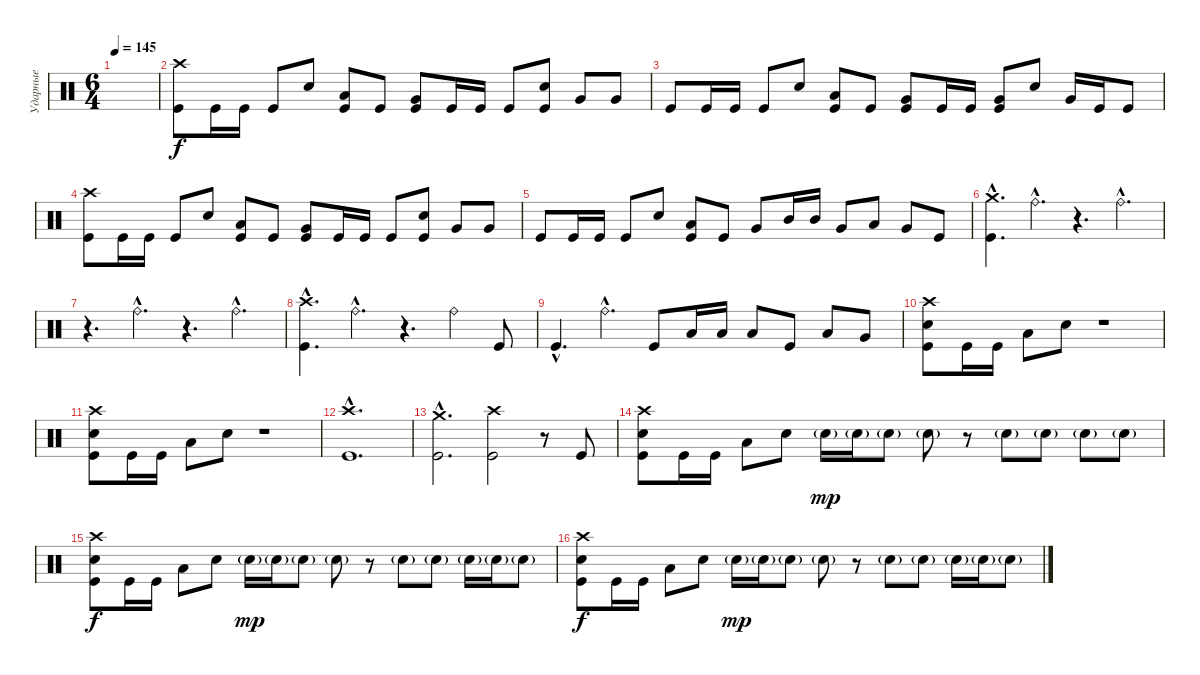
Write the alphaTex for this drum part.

\track ("Ударные" "Ударные") {instrument percussion}
\staff {score}
\articulation defaults
\ts (6 4)
\tempo 145
\clef neutral
\ks c
|
("Crash high (hit)" "Kick (hit)").8 "Kick (hit)".16 "Kick (hit)".16 "Kick (hit)".8 "Electric Snare (hit)".8 ("Low Tom (hit)" "Kick (hit)").8 "Kick (hit)".8 ("Very Low Tom (hit)" "Kick (hit)").8 "Kick (hit)".16 "Kick (hit)".16 "Kick (hit)".8 ("Electric Snare (hit)" "Kick (hit)").8 "Very Low Tom (hit)".8 "Very Low Tom (hit)".8 |
"Kick (hit)".8 "Kick (hit)".16 "Kick (hit)".16 "Kick (hit)".8 "Electric Snare (hit)".8 ("Low Tom (hit)" "Kick (hit)").8 "Kick (hit)".8 ("Very Low Tom (hit)" "Kick (hit)").8 "Kick (hit)".16 "Kick (hit)".16 ("Very Low Tom (hit)" "Kick (hit)").8 "Electric Snare (hit)".8 "Very Low Tom (hit)".16 "Kick (hit)".16 "Kick (hit)".8 |
("Crash high (hit)" "Kick (hit)").8 "Kick (hit)".16 "Kick (hit)".16 "Kick (hit)".8 "Electric Snare (hit)".8 ("Low Tom (hit)" "Kick (hit)").8 "Kick (hit)".8 ("Very Low Tom (hit)" "Kick (hit)").8 "Kick (hit)".16 "Kick (hit)".16 "Kick (hit)".8 ("Electric Snare (hit)" "Kick (hit)").8 "Very Low Tom (hit)".8 "Very Low Tom (hit)".8 |
"Kick (hit)".8 "Kick (hit)".16 "Kick (hit)".16 "Kick (hit)".8 "Electric Snare (hit)".8 ("Low Tom (hit)" "Kick (hit)").8 "Kick (hit)".8 "Very Low Tom (hit)".8 "Mid Tom (hit)".16 "Mid Tom (hit)".16 "Very Low Tom (hit)".8 "Low Tom (hit)".8 "Very Low Tom (hit)".8 "Kick (hit)".8 |
("Crash medium (hit)"{hac} "Kick (hit)"{hac}).4{d} "Ride (bell)"{hac}.4{d} r.4{d} "Ride (bell)"{hac}.4{d} |
r.4{d} "Ride (bell)"{hac}.4{d} r.4{d} "Ride (bell)"{hac}.4{d} |
("Crash high (hit)"{hac} "Kick (hit)"{hac}).4{d} "Ride (bell)"{hac}.4{d} r.4{d} "Ride (bell)".4 "Kick (hit)".8 |
"Kick (hit)"{hac}.4{d} "Ride (bell)"{hac}.4{d} "Kick (hit)".8 "Low Tom (hit)".16 "Low Tom (hit)".16 "Low Tom (hit)".8 "Kick (hit)".8 "Low Tom (hit)".8 "Very Low Tom (hit)".8 |
("Crash high (hit)" "Electric Snare (hit)" "Kick (hit)").8 "Kick (hit)".16 "Kick (hit)".16 "Low Tom (hit)".8 "Electric Snare (hit)".8 r.1 |
("Crash high (hit)" "Electric Snare (hit)" "Kick (hit)").8 "Kick (hit)".16 "Kick (hit)".16 "Low Tom (hit)".8 "Electric Snare (hit)".8 r.1 |
("Crash high (hit)"{hac} "Kick (hit)"{hac}).1{d} |
("Crash medium (hit)"{hac} "Kick (hit)"{hac}).2{d} ("Crash high (hit)" "Kick (hit)").2 r.8 "Kick (hit)".8 |
("Crash high (hit)" "Electric Snare (hit)" "Kick (hit)").8 "Kick (hit)".16 "Kick (hit)".16 "Low Tom (hit)".8 "Electric Snare (hit)".8 "Electric Snare (hit)"{g}.16{dy mp} "Electric Snare (hit)"{g}.16 "Electric Snare (hit)"{g}.8 "Electric Snare (hit)"{g}.8 r.8 "Electric Snare (hit)"{g}.8 "Electric Snare (hit)"{g}.8 "Electric Snare (hit)"{g}.8 "Electric Snare (hit)"{g}.8 |
("Crash high (hit)" "Electric Snare (hit)" "Kick (hit)").8{dy f} "Kick (hit)".16 "Kick (hit)".16 "Low Tom (hit)".8 "Electric Snare (hit)".8 "Electric Snare (hit)"{g}.16{dy mp} "Electric Snare (hit)"{g}.16 "Electric Snare (hit)"{g}.8 "Electric Snare (hit)"{g}.8 r.8 "Electric Snare (hit)"{g}.8 "Electric Snare (hit)"{g}.8 "Electric Snare (hit)"{g}.16 "Electric Snare (hit)"{g}.16 "Electric Snare (hit)"{g}.8 |
("Crash high (hit)" "Electric Snare (hit)" "Kick (hit)").8{dy f} "Kick (hit)".16 "Kick (hit)".16 "Low Tom (hit)".8 "Electric Snare (hit)".8 "Electric Snare (hit)"{g}.16{dy mp} "Electric Snare (hit)"{g}.16 "Electric Snare (hit)"{g}.8 "Electric Snare (hit)"{g}.8 r.8 "Electric Snare (hit)"{g}.8 "Electric Snare (hit)"{g}.8 "Electric Snare (hit)"{g}.16 "Electric Snare (hit)"{g}.16 "Electric Snare (hit)"{g}.8
